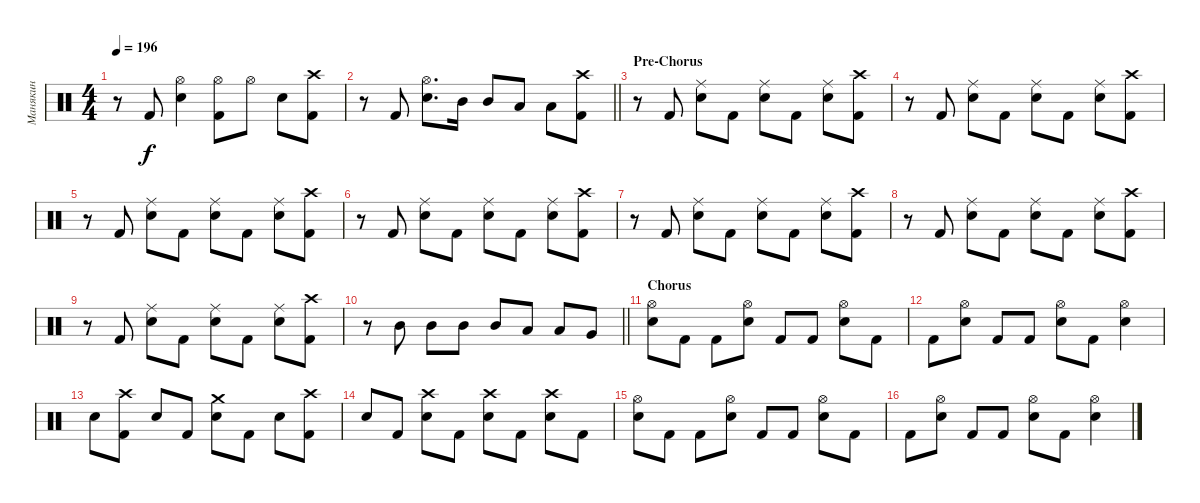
\track ("Манякин" "Манякин") {instrument percussion}
\staff {score}
\articulation defaults
\ts (4 4)
\tempo 196
\clef neutral
\ks c
r.8{dy f} "Kick (hit) 2".8 ("Hi-Hat (open)" "Electric Snare (hit)").4 ("Hi-Hat (open)" "Kick (hit) 2").8 "Hi-Hat (open)".8 "Electric Snare (hit)".8 ("Crash high (hit)" "Kick (hit) 2").8 |
\barLineRight lightlight
r.8 "Kick (hit) 2".8 ("Hi-Hat (open)" "Electric Snare (hit)").8{d} "Mid Tom (hit)".16 "Mid Tom (hit)".8 "Low Tom (hit)".8 "Low Tom (hit)".8 ("Crash high (hit)" "Kick (hit) 2").8 |
\section ("" "Pre-Chorus")
r.8 "Kick (hit) 2".8 ("Ride (middle)" "Electric Snare (hit)").8 "Kick (hit) 2".8 ("Ride (middle)" "Electric Snare (hit)").8 "Kick (hit) 2".8 ("Ride (middle)" "Electric Snare (hit)").8 ("Crash high (hit)" "Kick (hit) 2").8 |
r.8 "Kick (hit) 2".8 ("Ride (middle)" "Electric Snare (hit)").8 "Kick (hit) 2".8 ("Ride (middle)" "Electric Snare (hit)").8 "Kick (hit) 2".8 ("Ride (middle)" "Electric Snare (hit)").8 ("Crash high (hit)" "Kick (hit) 2").8 |
r.8 "Kick (hit) 2".8 ("Ride (middle)" "Electric Snare (hit)").8 "Kick (hit) 2".8 ("Ride (middle)" "Electric Snare (hit)").8 "Kick (hit) 2".8 ("Ride (middle)" "Electric Snare (hit)").8 ("Crash high (hit)" "Kick (hit) 2").8 |
r.8 "Kick (hit) 2".8 ("Ride (middle)" "Electric Snare (hit)").8 "Kick (hit) 2".8 ("Ride (middle)" "Electric Snare (hit)").8 "Kick (hit) 2".8 ("Ride (middle)" "Electric Snare (hit)").8 ("Crash high (hit)" "Kick (hit) 2").8 |
r.8 "Kick (hit) 2".8 ("Ride (middle)" "Electric Snare (hit)").8 "Kick (hit) 2".8 ("Ride (middle)" "Electric Snare (hit)").8 "Kick (hit) 2".8 ("Ride (middle)" "Electric Snare (hit)").8 ("Crash high (hit)" "Kick (hit) 2").8 |
r.8 "Kick (hit) 2".8 ("Ride (middle)" "Electric Snare (hit)").8 "Kick (hit) 2".8 ("Ride (middle)" "Electric Snare (hit)").8 "Kick (hit) 2".8 ("Ride (middle)" "Electric Snare (hit)").8 ("Crash high (hit)" "Kick (hit) 2").8 |
r.8 "Kick (hit) 2".8 ("Ride (middle)" "Electric Snare (hit)").8 "Kick (hit) 2".8 ("Ride (middle)" "Electric Snare (hit)").8 "Kick (hit) 2".8 ("Ride (middle)" "Electric Snare (hit)").8 ("Crash high (hit)" "Kick (hit) 2").8 |
\barLineRight lightlight
r.8 "Mid Tom (hit)".8 "Mid Tom (hit)".8 "Mid Tom (hit)".8 "Mid Tom (hit)".8 "Low Tom (hit)".8 "Low Tom (hit)".8 "Very Low Tom (hit)".8 |
\section ("" "Chorus")
("Hi-Hat (open)" "Electric Snare (hit)").8 "Kick (hit) 2".8 "Kick (hit) 2".8 ("Hi-Hat (open)" "Electric Snare (hit)").8 "Kick (hit) 2".8 "Kick (hit) 2".8 ("Hi-Hat (open)" "Electric Snare (hit)").8 "Kick (hit) 2".8 |
"Kick (hit) 2".8 ("Hi-Hat (open)" "Electric Snare (hit)").8 "Kick (hit) 2".8 "Kick (hit) 2".8 ("Hi-Hat (open)" "Electric Snare (hit)").8 "Kick (hit) 2".8 ("Hi-Hat (open)" "Electric Snare (hit)").4 |
"Electric Snare (hit)".8 ("Crash high (hit)" "Kick (hit) 2").8 "Electric Snare (hit)".8 "Kick (hit) 2".8 ("Crash medium (hit)" "Electric Snare (hit)").8 "Kick (hit) 2".8 "Electric Snare (hit)".8 ("Crash high (hit)" "Kick (hit) 2").8 |
"Electric Snare (hit)".8 "Kick (hit) 2".8 ("Crash high (hit)" "Electric Snare (hit)").8 "Kick (hit) 2".8 ("Crash high (hit)" "Electric Snare (hit)").8 "Kick (hit) 2".8 ("Crash high (hit)" "Electric Snare (hit)").8 "Kick (hit) 2".8 |
("Hi-Hat (open)" "Electric Snare (hit)").8 "Kick (hit) 2".8 "Kick (hit) 2".8 ("Hi-Hat (open)" "Electric Snare (hit)").8 "Kick (hit) 2".8 "Kick (hit) 2".8 ("Hi-Hat (open)" "Electric Snare (hit)").8 "Kick (hit) 2".8 |
"Kick (hit) 2".8 ("Hi-Hat (open)" "Electric Snare (hit)").8 "Kick (hit) 2".8 "Kick (hit) 2".8 ("Hi-Hat (open)" "Electric Snare (hit)").8 "Kick (hit) 2".8 ("Hi-Hat (open)" "Electric Snare (hit)").4
